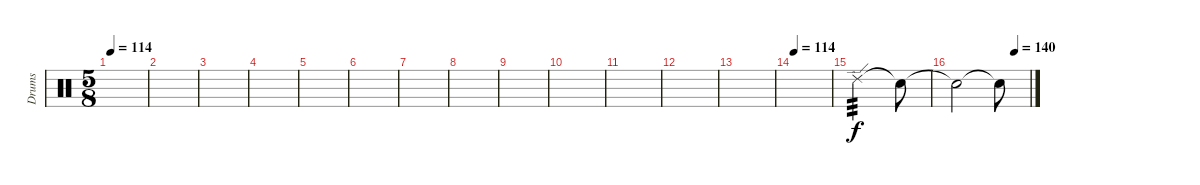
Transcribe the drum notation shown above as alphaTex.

\track ("Drums" "Drums") {instrument percussion}
\staff {score}
\articulation defaults
\ts (5 8)
\tempo 114
\clef neutral
\ks c
|
|
|
|
|
|
|
|
|
|
|
|
|
\tempo 114
|
"Ride (edge) 2".2{tp 3 volume 16} "Snare (hit)"{t}.8 |
\tempo (140 0.8)
"Snare (hit)"{t}.2 "Snare (hit)"{t}.8
